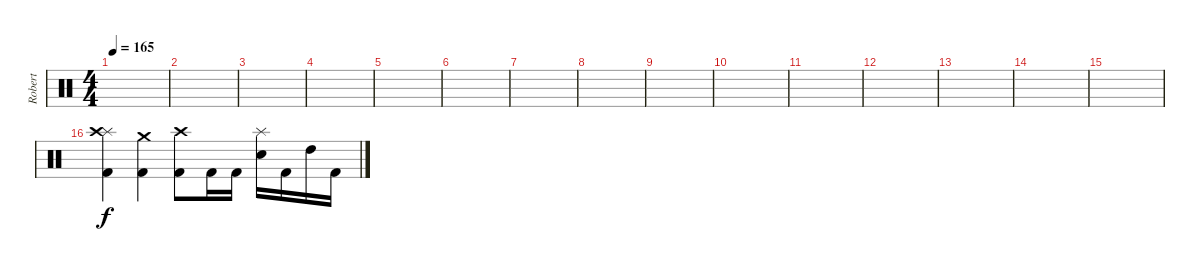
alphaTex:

\track ("Robert" "Robert") {instrument percussion}
\staff {score}
\articulation defaults
\ts (4 4)
\tempo 165
\clef neutral
\ks c
|
|
|
|
|
|
|
|
|
|
|
|
|
|
|
("Kick (hit) 2" "Splash (hit)" "Crash high (hit)").4 ("Kick (hit) 2" "Crash medium (hit)").4 ("Kick (hit) 2" "Crash high (hit)").8 "Kick (hit) 2".16 "Kick (hit) 2".16 ("Electric Snare (hit)" "Splash (hit)").16 "Kick (hit) 2".16 "High Tom (hit)".16 "Kick (hit) 2".16
